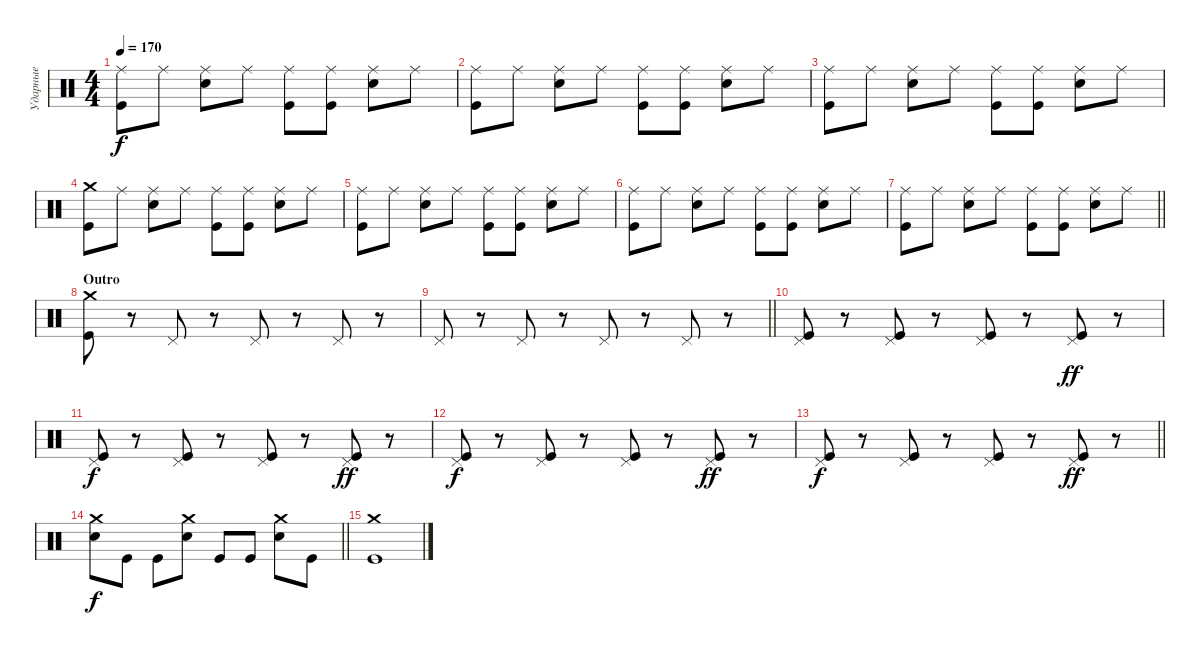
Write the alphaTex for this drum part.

\track ("Ударные" "Ударные") {instrument percussion}
\staff {score}
\articulation defaults
\ts (4 4)
\tempo 170
\clef neutral
\ks c
("Ride (middle)" "Kick (hit)").8{dy f} "Ride (middle)".8 ("Ride (middle)" "Electric Snare (hit)").8 "Ride (middle)".8 ("Ride (middle)" "Kick (hit)").8 ("Ride (middle)" "Kick (hit)").8 ("Ride (middle)" "Electric Snare (hit)").8 "Ride (middle)".8 |
("Ride (middle)" "Kick (hit)").8 "Ride (middle)".8 ("Ride (middle)" "Electric Snare (hit)").8 "Ride (middle)".8 ("Ride (middle)" "Kick (hit)").8 ("Ride (middle)" "Kick (hit)").8 ("Ride (middle)" "Electric Snare (hit)").8 "Ride (middle)".8 |
("Ride (middle)" "Kick (hit)").8 "Ride (middle)".8 ("Ride (middle)" "Electric Snare (hit)").8 "Ride (middle)".8 ("Ride (middle)" "Kick (hit)").8 ("Ride (middle)" "Kick (hit)").8 ("Ride (middle)" "Electric Snare (hit)").8 "Ride (middle)".8 |
("Crash medium (hit)" "Kick (hit)").8 "Ride (middle)".8 ("Ride (middle)" "Electric Snare (hit)").8 "Ride (middle)".8 ("Ride (middle)" "Kick (hit)").8 ("Ride (middle)" "Kick (hit)").8 ("Ride (middle)" "Electric Snare (hit)").8 "Ride (middle)".8 |
("Ride (middle)" "Kick (hit)").8 "Ride (middle)".8 ("Ride (middle)" "Electric Snare (hit)").8 "Ride (middle)".8 ("Ride (middle)" "Kick (hit)").8 ("Ride (middle)" "Kick (hit)").8 ("Ride (middle)" "Electric Snare (hit)").8 "Ride (middle)".8 |
("Ride (middle)" "Kick (hit)").8 "Ride (middle)".8 ("Ride (middle)" "Electric Snare (hit)").8 "Ride (middle)".8 ("Ride (middle)" "Kick (hit)").8 ("Ride (middle)" "Kick (hit)").8 ("Ride (middle)" "Electric Snare (hit)").8 "Ride (middle)".8 |
\barLineRight lightlight
("Ride (middle)" "Kick (hit)").8 "Ride (middle)".8 ("Ride (middle)" "Electric Snare (hit)").8 "Ride (middle)".8 ("Ride (middle)" "Kick (hit)").8 ("Ride (middle)" "Kick (hit)").8 ("Ride (middle)" "Electric Snare (hit)").8 "Ride (middle)".8 |
\section ("" "Outro")
("Crash medium (hit)" "Kick (hit)").8 r.8 "Pedal Hi-Hat (hit)".8 r.8 "Pedal Hi-Hat (hit)".8 r.8 "Pedal Hi-Hat (hit)".8 r.8 |
\barLineRight lightlight "Pedal Hi-Hat (hit)".8
r.8 "Pedal Hi-Hat (hit)".8 r.8 "Pedal Hi-Hat (hit)".8 r.8 "Pedal Hi-Hat (hit)".8 r.8 |
("Pedal Hi-Hat (hit)" "Kick (hit)").8 r.8 ("Pedal Hi-Hat (hit)" "Kick (hit)").8 r.8 ("Pedal Hi-Hat (hit)" "Kick (hit)").8 r.8 ("Pedal Hi-Hat (hit)" "Kick (hit)").8{dy ff} r.8 |
("Pedal Hi-Hat (hit)" "Kick (hit)").8{dy f} r.8 ("Pedal Hi-Hat (hit)" "Kick (hit)").8 r.8 ("Pedal Hi-Hat (hit)" "Kick (hit)").8 r.8 ("Pedal Hi-Hat (hit)" "Kick (hit)").8{dy ff} r.8 |
("Pedal Hi-Hat (hit)" "Kick (hit)").8{dy f} r.8 ("Pedal Hi-Hat (hit)" "Kick (hit)").8 r.8 ("Pedal Hi-Hat (hit)" "Kick (hit)").8 r.8 ("Pedal Hi-Hat (hit)" "Kick (hit)").8{dy ff} r.8 |
\barLineRight lightlight
("Pedal Hi-Hat (hit)" "Kick (hit)").8{dy f} r.8 ("Pedal Hi-Hat (hit)" "Kick (hit)").8 r.8 ("Pedal Hi-Hat (hit)" "Kick (hit)").8 r.8 ("Pedal Hi-Hat (hit)" "Kick (hit)").8{dy ff} r.8 |
\barLineRight lightlight
("Crash medium (hit)" "Electric Snare (hit)").8{dy f} "Kick (hit)".8 "Kick (hit)".8 ("Crash medium (hit)" "Electric Snare (hit)").8 "Kick (hit)".8 "Kick (hit)".8 ("Crash medium (hit)" "Electric Snare (hit)").8 "Kick (hit)".8 |
("Crash medium (hit)" "Kick (hit)").1
